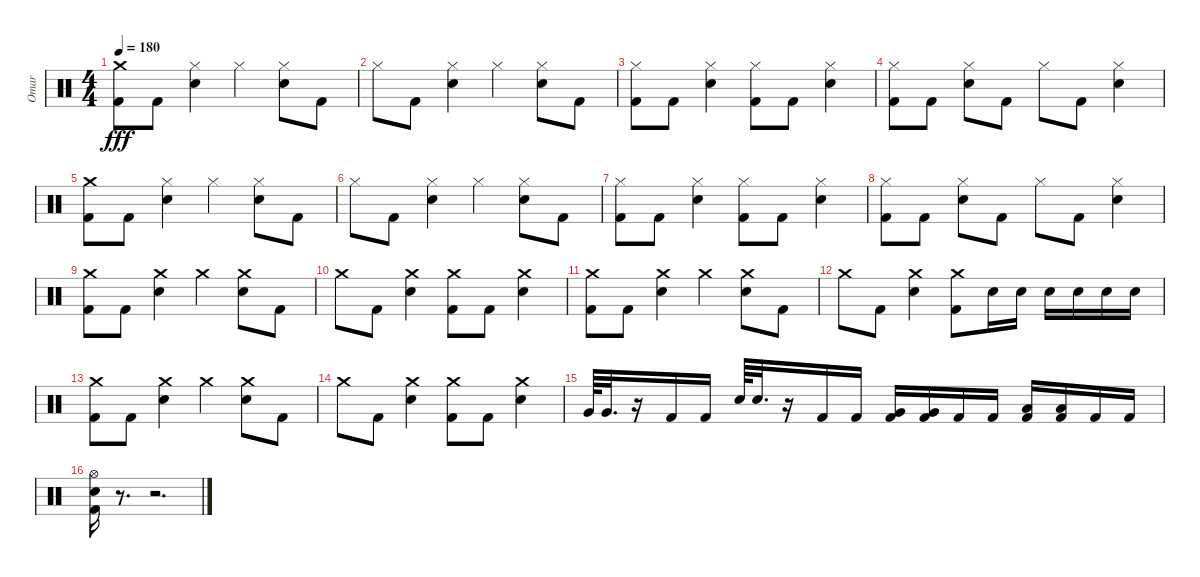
\track ("Omar" "Omar") {instrument percussion}
\staff {score}
\articulation defaults
\ts (4 4)
\tempo 180
\clef neutral
\ks c
("Crash medium (hit)" "Kick (hit) 2").8{dy fff} "Kick (hit) 2".8 ("Hi-Hat (closed)" "Electric Snare (hit)").4 "Hi-Hat (closed)".4 ("Hi-Hat (closed)" "Electric Snare (hit)").8 "Kick (hit) 2".8 |
"Hi-Hat (closed)".8 "Kick (hit) 2".8 ("Hi-Hat (closed)" "Electric Snare (hit)").4 "Hi-Hat (closed)".4 ("Hi-Hat (closed)" "Electric Snare (hit)").8 "Kick (hit) 2".8 |
("Hi-Hat (closed)" "Kick (hit) 2").8 "Kick (hit) 2".8 ("Hi-Hat (closed)" "Electric Snare (hit)").4 ("Hi-Hat (closed)" "Kick (hit) 2").8 "Kick (hit) 2".8 ("Hi-Hat (closed)" "Electric Snare (hit)").4 |
("Hi-Hat (closed)" "Kick (hit) 2").8 "Kick (hit) 2".8 ("Hi-Hat (closed)" "Electric Snare (hit)").8 "Kick (hit) 2".8 "Hi-Hat (closed)".8 "Kick (hit) 2".8 ("Hi-Hat (closed)" "Electric Snare (hit)").4 |
("Crash medium (hit)" "Kick (hit) 2").8 "Kick (hit) 2".8 ("Hi-Hat (closed)" "Electric Snare (hit)").4 "Hi-Hat (closed)".4 ("Hi-Hat (closed)" "Electric Snare (hit)").8 "Kick (hit) 2".8 |
"Hi-Hat (closed)".8 "Kick (hit) 2".8 ("Hi-Hat (closed)" "Electric Snare (hit)").4 "Hi-Hat (closed)".4 ("Hi-Hat (closed)" "Electric Snare (hit)").8 "Kick (hit) 2".8 |
("Hi-Hat (closed)" "Kick (hit) 2").8 "Kick (hit) 2".8 ("Hi-Hat (closed)" "Electric Snare (hit)").4 ("Hi-Hat (closed)" "Kick (hit) 2").8 "Kick (hit) 2".8 ("Hi-Hat (closed)" "Electric Snare (hit)").4 |
("Hi-Hat (closed)" "Kick (hit) 2").8 "Kick (hit) 2".8 ("Hi-Hat (closed)" "Electric Snare (hit)").8 "Kick (hit) 2".8 "Hi-Hat (closed)".8 "Kick (hit) 2".8 ("Hi-Hat (closed)" "Electric Snare (hit)").4 |
("Crash medium (hit)" "Kick (hit) 2").8 "Kick (hit) 2".8 ("Crash medium (hit)" "Electric Snare (hit)").4 "Crash medium (hit)".4 ("Crash medium (hit)" "Electric Snare (hit)").8 "Kick (hit) 2".8 |
"Crash medium (hit)".8 "Kick (hit) 2".8 ("Crash medium (hit)" "Electric Snare (hit)").4 ("Crash medium (hit)" "Kick (hit) 2").8 "Kick (hit) 2".8 ("Crash medium (hit)" "Electric Snare (hit)").4 |
("Crash medium (hit)" "Kick (hit) 2").8 "Kick (hit) 2".8 ("Crash medium (hit)" "Electric Snare (hit)").4 "Crash medium (hit)".4 ("Crash medium (hit)" "Electric Snare (hit)").8 "Kick (hit) 2".8 |
"Crash medium (hit)".8 "Kick (hit) 2".8 ("Crash medium (hit)" "Electric Snare (hit)").4 ("Crash medium (hit)" "Kick (hit) 2").8 "Electric Snare (hit)".16 "Electric Snare (hit)".16 "Electric Snare (hit)".16 "Electric Snare (hit)".16 "Electric Snare (hit)".16 "Electric Snare (hit)".16 |
("Crash medium (hit)" "Kick (hit) 2").8 "Kick (hit) 2".8 ("Crash medium (hit)" "Electric Snare (hit)").4 "Crash medium (hit)".4 ("Crash medium (hit)" "Electric Snare (hit)").8 "Kick (hit) 2".8 |
"Crash medium (hit)".8 "Kick (hit) 2".8 ("Crash medium (hit)" "Electric Snare (hit)").4 ("Crash medium (hit)" "Kick (hit) 2").8 "Kick (hit) 2".8 ("Crash medium (hit)" "Electric Snare (hit)").4 |
"Very Low Tom (hit)".64 "Very Low Tom (hit)".32{d} r.16 "Kick (hit) 2".16 "Kick (hit) 2".16 "Electric Snare (hit)".64 "Electric Snare (hit)".32{d} r.16 "Kick (hit) 2".16 "Kick (hit) 2".16 ("Very Low Tom (hit)" "Kick (hit) 2").16 ("Very Low Tom (hit)" "Kick (hit) 2").16 "Kick (hit) 2".16 "Kick (hit) 2".16 ("Low Floor Tom (hit)" "Kick (hit) 2").16 ("Low Floor Tom (hit)" "Kick (hit) 2").16 "Kick (hit) 2".16 "Kick (hit) 2".16 |
("Hi-Hat (open)" "Electric Snare (hit)" "Kick (hit) 2").16 r.8{d} r.2{d}
